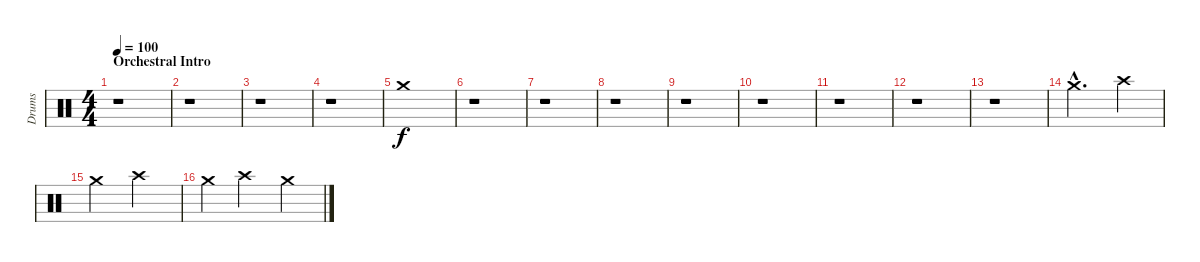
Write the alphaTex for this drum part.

\track ("Drums" "Drums") {instrument percussion}
\staff {score}
\articulation defaults
\ts (4 4)
\section ("" "Orchestral Intro")
\tempo 100
\clef neutral
\ks c
r.1{dy f} |
r.1 |
r.1 |
r.1 |
"Crash medium (hit)".1 |
r.1 |
r.1 |
r.1 |
r.1 |
r.1 |
r.1 |
r.1 |
r.1 |
"Crash medium (hit)"{hac}.2{d} "Crash high (hit)".4 |
"Crash medium (hit)".2 "Crash high (hit)".2 |
"Crash medium (hit)".4 "Crash high (hit)".2 "Crash medium (hit)".4
